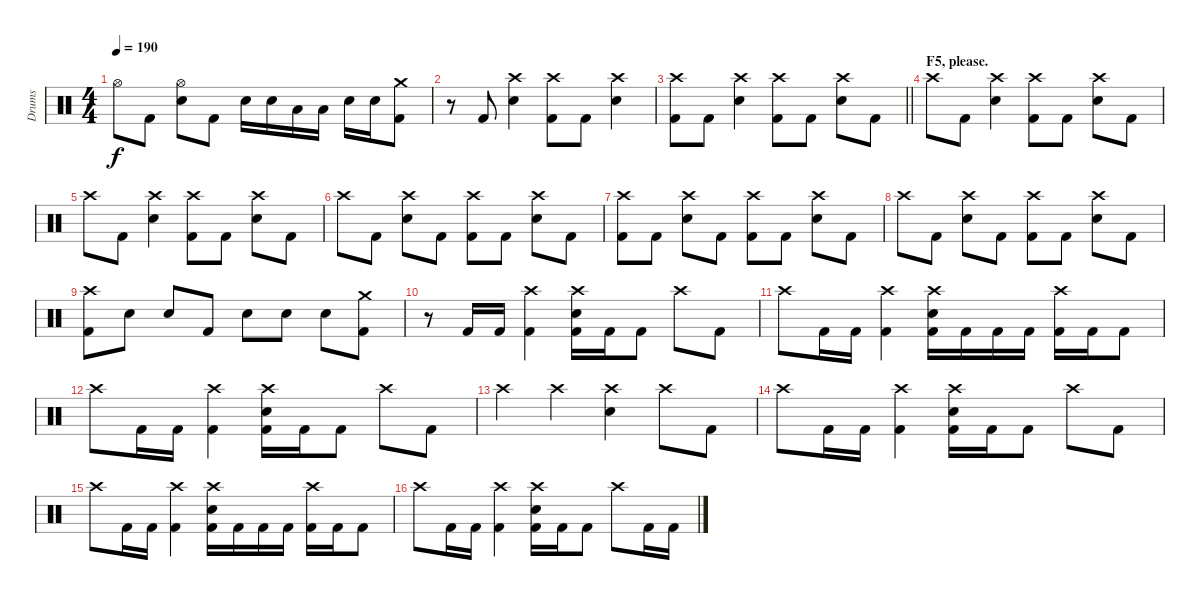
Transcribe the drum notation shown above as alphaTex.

\track ("Drums" "Drums") {instrument percussion}
\staff {score}
\articulation defaults
\ts (4 4)
\tempo 190
\clef neutral
\ks c "Hi-Hat (open)".8{dy f} "Kick (hit) 2".8
("Hi-Hat (open)" "Electric Snare (hit)").8 "Kick (hit) 2".8 "Electric Snare (hit)".16 "Electric Snare (hit)".16 "Low Tom (hit)".16 "Low Tom (hit)".16 "Electric Snare (hit)".16 "Electric Snare (hit)".16 ("Crash medium (hit)" "Kick (hit) 2").8 |
r.8 "Kick (hit) 2".8 ("Crash high (hit)" "Electric Snare (hit)").4 ("Crash high (hit)" "Kick (hit) 2").8 "Kick (hit) 2".8 ("Crash high (hit)" "Electric Snare (hit)").4 |
\barLineRight lightlight
("Crash high (hit)" "Kick (hit) 2").8 "Kick (hit) 2".8 ("Crash high (hit)" "Electric Snare (hit)").4 ("Crash high (hit)" "Kick (hit) 2").8 "Kick (hit) 2".8 ("Crash high (hit)" "Electric Snare (hit)").8 "Kick (hit) 2".8 |
\section ("" "F5, please. ")
"Crash high (hit)".8 "Kick (hit) 2".8 ("Crash high (hit)" "Electric Snare (hit)").4 ("Crash high (hit)" "Kick (hit) 2").8 "Kick (hit) 2".8 ("Crash high (hit)" "Electric Snare (hit)").8 "Kick (hit) 2".8 |
"Crash high (hit)".8 "Kick (hit) 2".8 ("Crash high (hit)" "Electric Snare (hit)").4 ("Crash high (hit)" "Kick (hit) 2").8 "Kick (hit) 2".8 ("Crash high (hit)" "Electric Snare (hit)").8 "Kick (hit) 2".8 |
"Crash high (hit)".8 "Kick (hit) 2".8 ("Crash high (hit)" "Electric Snare (hit)").8 "Kick (hit) 2".8 ("Crash high (hit)" "Kick (hit) 2").8 "Kick (hit) 2".8 ("Crash high (hit)" "Electric Snare (hit)").8 "Kick (hit) 2".8 |
("Crash high (hit)" "Kick (hit) 2").8 "Kick (hit) 2".8 ("Crash high (hit)" "Electric Snare (hit)").8 "Kick (hit) 2".8 ("Crash high (hit)" "Kick (hit) 2").8 "Kick (hit) 2".8 ("Crash high (hit)" "Electric Snare (hit)").8 "Kick (hit) 2".8 |
"Crash high (hit)".8 "Kick (hit) 2".8 ("Crash high (hit)" "Electric Snare (hit)").8 "Kick (hit) 2".8 ("Crash high (hit)" "Kick (hit) 2").8 "Kick (hit) 2".8 ("Crash high (hit)" "Electric Snare (hit)").8 "Kick (hit) 2".8 |
("Crash high (hit)" "Kick (hit) 2").8 "Electric Snare (hit)".8 "Electric Snare (hit)".8 "Kick (hit) 2".8 "Electric Snare (hit)".8 "Electric Snare (hit)".8 "Electric Snare (hit)".8 ("Crash medium (hit)" "Kick (hit) 2").8 |
r.8 "Kick (hit) 2".16 "Kick (hit) 2".16 ("Crash high (hit)" "Kick (hit) 2").4 ("Crash high (hit)" "Electric Snare (hit)" "Kick (hit) 2").16 "Kick (hit) 2".16 "Kick (hit) 2".8 "Crash high (hit)".8 "Kick (hit) 2".8 |
"Crash high (hit)".8 "Kick (hit) 2".16 "Kick (hit) 2".16 ("Crash high (hit)" "Kick (hit) 2").4 ("Crash high (hit)" "Electric Snare (hit)" "Kick (hit) 2").16 "Kick (hit) 2".16 "Kick (hit) 2".16 "Kick (hit) 2".16 ("Crash high (hit)" "Kick (hit) 2").16 "Kick (hit) 2".16 "Kick (hit) 2".8 |
"Crash high (hit)".8 "Kick (hit) 2".16 "Kick (hit) 2".16 ("Crash high (hit)" "Kick (hit) 2").4 ("Crash high (hit)" "Electric Snare (hit)" "Kick (hit) 2").16 "Kick (hit) 2".16 "Kick (hit) 2".8 "Crash high (hit)".8 "Kick (hit) 2".8 |
"Crash high (hit)".4 "Crash high (hit)".4 ("Crash high (hit)" "Electric Snare (hit)").4 "Crash high (hit)".8 "Kick (hit) 2".8 |
"Crash high (hit)".8 "Kick (hit) 2".16 "Kick (hit) 2".16 ("Crash high (hit)" "Kick (hit) 2").4 ("Crash high (hit)" "Electric Snare (hit)" "Kick (hit) 2").16 "Kick (hit) 2".16 "Kick (hit) 2".8 "Crash high (hit)".8 "Kick (hit) 2".8 |
"Crash high (hit)".8 "Kick (hit) 2".16 "Kick (hit) 2".16 ("Crash high (hit)" "Kick (hit) 2").4 ("Crash high (hit)" "Electric Snare (hit)" "Kick (hit) 2").16 "Kick (hit) 2".16 "Kick (hit) 2".16 "Kick (hit) 2".16 ("Crash high (hit)" "Kick (hit) 2").16 "Kick (hit) 2".16 "Kick (hit) 2".8 |
"Crash high (hit)".8 "Kick (hit) 2".16 "Kick (hit) 2".16 ("Crash high (hit)" "Kick (hit) 2").4 ("Crash high (hit)" "Electric Snare (hit)" "Kick (hit) 2").16 "Kick (hit) 2".16 "Kick (hit) 2".8 "Crash high (hit)".8 "Kick (hit) 2".16 "Kick (hit) 2".16
